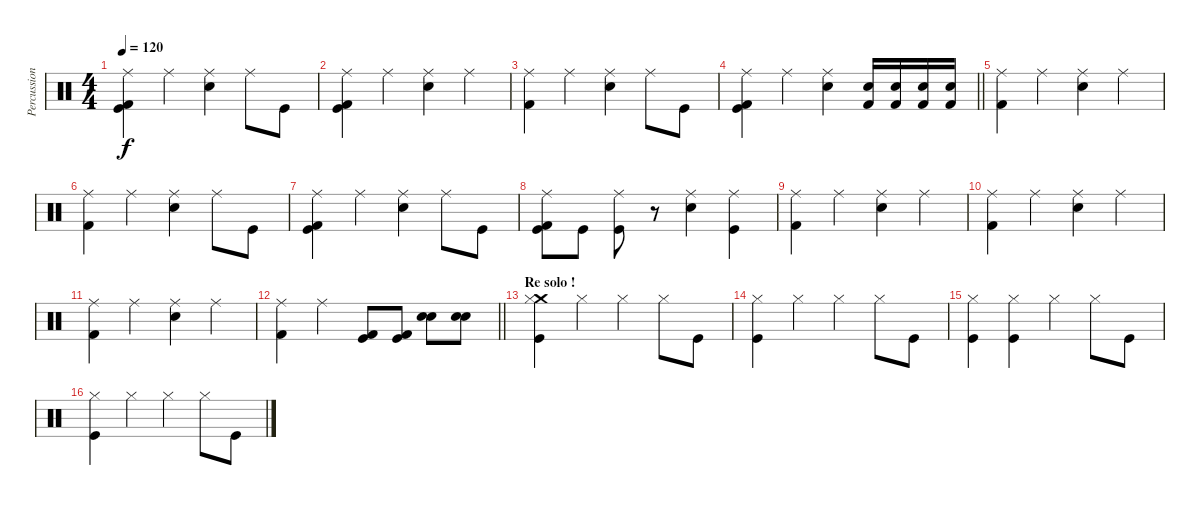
\track ("Percussions" "Percussion") {instrument percussion}
\staff {score}
\articulation defaults
\ts (4 4)
\tempo 120
\clef neutral
\ks c
("Kick (hit) 2" "Kick (hit)" "Ride (middle)").4{dy f} "Ride (middle)".4 ("Electric Snare (hit)" "Ride (middle)").4 "Ride (middle)".8 "Kick (hit)".8 |
("Kick (hit) 2" "Kick (hit)" "Ride (middle)").4 "Ride (middle)".4 ("Electric Snare (hit)" "Ride (middle)").4 "Ride (middle)".4 |
("Kick (hit) 2" "Ride (middle)").4 "Ride (middle)".4 ("Electric Snare (hit)" "Ride (middle)").4 "Ride (middle)".8 "Kick (hit)".8 |
\barLineRight lightlight
("Kick (hit) 2" "Kick (hit)" "Ride (middle)").4 "Ride (middle)".4 ("Electric Snare (hit)" "Ride (middle)").4 ("Kick (hit) 2" "Electric Snare (hit)").16 ("Kick (hit) 2" "Electric Snare (hit)").16 ("Kick (hit) 2" "Electric Snare (hit)").16 ("Kick (hit) 2" "Electric Snare (hit)").16 |
("Kick (hit) 2" "Ride (middle)").4 "Ride (middle)".4 ("Electric Snare (hit)" "Ride (middle)").4 "Ride (middle)".4 |
("Kick (hit) 2" "Ride (middle)").4 "Ride (middle)".4 ("Electric Snare (hit)" "Ride (middle)").4 "Ride (middle)".8 "Kick (hit)".8 |
("Kick (hit) 2" "Kick (hit)" "Ride (middle)").4 "Ride (middle)".4 ("Electric Snare (hit)" "Ride (middle)").4 "Ride (middle)".8 "Kick (hit)".8 |
("Kick (hit) 2" "Kick (hit)" "Ride (middle)").8 "Kick (hit)".8 ("Kick (hit)" "Ride (middle)").8 r.8 ("Electric Snare (hit)" "Ride (middle)").4 ("Kick (hit)" "Ride (middle)").4 |
("Kick (hit) 2" "Ride (middle)").4 "Ride (middle)".4 ("Electric Snare (hit)" "Ride (middle)").4 "Ride (middle)".4 |
("Kick (hit) 2" "Ride (middle)").4 "Ride (middle)".4 ("Electric Snare (hit)" "Ride (middle)").4 "Ride (middle)".4 |
("Kick (hit) 2" "Ride (middle)").4 "Ride (middle)".4 ("Electric Snare (hit)" "Ride (middle)").4 "Ride (middle)".4 |
\barLineRight lightlight
("Kick (hit) 2" "Ride (middle)").4 "Ride (middle)".4 ("Kick (hit) 2" "Kick (hit)").8 ("Kick (hit) 2" "Kick (hit)").8 ("Snare (hit) 2" "Electric Snare (hit)").8 ("Snare (hit) 2" "Electric Snare (hit)").8 |
\section ("" "Re solo !")
("Crash medium (hit)" "Kick (hit)" "Hi-Hat (closed)").4 "Hi-Hat (closed)".4 "Hi-Hat (closed)".4 "Hi-Hat (closed)".8 "Kick (hit)".8 |
("Kick (hit)" "Hi-Hat (closed)").4 "Hi-Hat (closed)".4 "Hi-Hat (closed)".4 "Hi-Hat (closed)".8 "Kick (hit)".8 |
("Kick (hit)" "Hi-Hat (closed)").4 ("Kick (hit)" "Hi-Hat (closed)").4 "Hi-Hat (closed)".4 "Hi-Hat (closed)".8 "Kick (hit)".8 |
("Kick (hit)" "Hi-Hat (closed)").4 "Hi-Hat (closed)".4 "Hi-Hat (closed)".4 "Hi-Hat (closed)".8 "Kick (hit)".8
